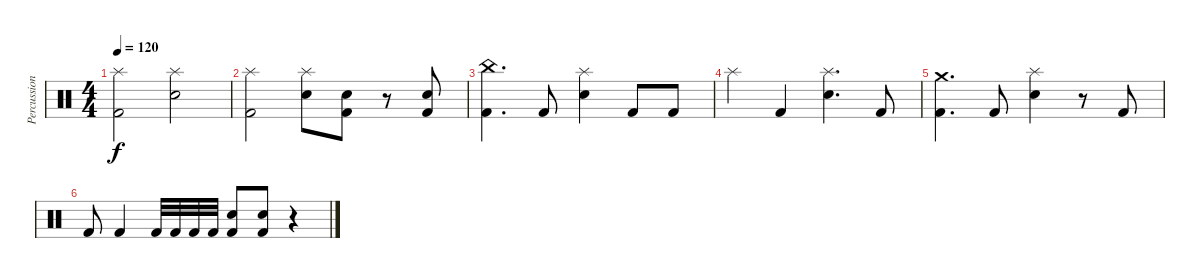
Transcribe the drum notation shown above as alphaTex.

\track ("Percussion" "Percussion") {instrument percussion}
\staff {score}
\articulation defaults
\ts (4 4)
\tempo 120
\clef neutral
\ks c
("Splash (hit)" "Kick (hit) 2").2{dy f} ("Splash (hit)" "Electric Snare (hit)").2 |
("Splash (hit)" "Kick (hit) 2").2 ("Splash (hit)" "Electric Snare (hit)").8 ("Electric Snare (hit)" "Kick (hit) 2").8 r.8 ("Electric Snare (hit)" "Kick (hit) 2").8 |
("China (hit)" "Kick (hit) 2").4{d} "Kick (hit) 2".8 ("Splash (hit)" "Electric Snare (hit)").4 "Kick (hit) 2".8 "Kick (hit) 2".8 |
"Splash (hit)".4 "Kick (hit) 2".4 ("Splash (hit)" "Electric Snare (hit)").4{d} "Kick (hit) 2".8 |
("Crash medium (hit)" "Kick (hit) 2").4{d} "Kick (hit) 2".8 ("Splash (hit)" "Electric Snare (hit)").4 r.8 "Kick (hit) 2".8 |
"Kick (hit) 2".8 "Kick (hit) 2".4 "Kick (hit) 2".32 "Kick (hit) 2".32 "Kick (hit) 2".32 "Kick (hit) 2".32 ("Electric Snare (hit)" "Kick (hit) 2").8 ("Electric Snare (hit)" "Kick (hit) 2").8 r.4
